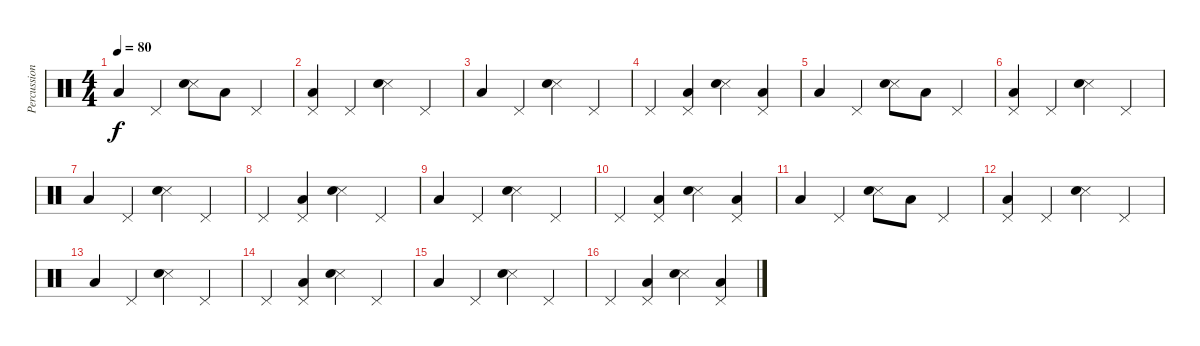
\track ("Percussions" "Percussion") {instrument percussion}
\staff {score}
\articulation defaults
\ts (4 4)
\tempo 80
\clef neutral
\ks c "Low Floor Tom (hit)".4{dy f} "Pedal Hi-Hat (hit)".4
("Snare (side stick) 3" "Electric Snare (hit)").8 "Low Floor Tom (hit)".8 "Pedal Hi-Hat (hit)".4 |
("Pedal Hi-Hat (hit)" "Low Floor Tom (hit)").4 "Pedal Hi-Hat (hit)".4 ("Snare (side stick) 3" "Electric Snare (hit)").4 "Pedal Hi-Hat (hit)".4 |
"Low Floor Tom (hit)".4 "Pedal Hi-Hat (hit)".4 ("Snare (side stick) 3" "Electric Snare (hit)").4 "Pedal Hi-Hat (hit)".4 |
"Pedal Hi-Hat (hit)".4 ("Pedal Hi-Hat (hit)" "Low Floor Tom (hit)").4 ("Snare (side stick) 3" "Electric Snare (hit)").4 ("Pedal Hi-Hat (hit)" "Low Floor Tom (hit)").4 |
"Low Floor Tom (hit)".4 "Pedal Hi-Hat (hit)".4 ("Snare (side stick) 3" "Electric Snare (hit)").8 "Low Floor Tom (hit)".8 "Pedal Hi-Hat (hit)".4 |
("Pedal Hi-Hat (hit)" "Low Floor Tom (hit)").4 "Pedal Hi-Hat (hit)".4 ("Snare (side stick) 3" "Electric Snare (hit)").4 "Pedal Hi-Hat (hit)".4 |
"Low Floor Tom (hit)".4 "Pedal Hi-Hat (hit)".4 ("Snare (side stick) 3" "Electric Snare (hit)").4 "Pedal Hi-Hat (hit)".4 |
"Pedal Hi-Hat (hit)".4 ("Pedal Hi-Hat (hit)" "Low Floor Tom (hit)").4 ("Snare (side stick) 3" "Electric Snare (hit)").4 "Pedal Hi-Hat (hit)".4 |
"Low Floor Tom (hit)".4 "Pedal Hi-Hat (hit)".4 ("Snare (side stick) 3" "Electric Snare (hit)").4 "Pedal Hi-Hat (hit)".4 |
"Pedal Hi-Hat (hit)".4 ("Pedal Hi-Hat (hit)" "Low Floor Tom (hit)").4 ("Snare (side stick) 3" "Electric Snare (hit)").4 ("Pedal Hi-Hat (hit)" "Low Floor Tom (hit)").4 |
"Low Floor Tom (hit)".4 "Pedal Hi-Hat (hit)".4 ("Snare (side stick) 3" "Electric Snare (hit)").8 "Low Floor Tom (hit)".8 "Pedal Hi-Hat (hit)".4 |
("Pedal Hi-Hat (hit)" "Low Floor Tom (hit)").4 "Pedal Hi-Hat (hit)".4 ("Snare (side stick) 3" "Electric Snare (hit)").4 "Pedal Hi-Hat (hit)".4 |
"Low Floor Tom (hit)".4 "Pedal Hi-Hat (hit)".4 ("Snare (side stick) 3" "Electric Snare (hit)").4 "Pedal Hi-Hat (hit)".4 |
"Pedal Hi-Hat (hit)".4 ("Pedal Hi-Hat (hit)" "Low Floor Tom (hit)").4 ("Snare (side stick) 3" "Electric Snare (hit)").4 "Pedal Hi-Hat (hit)".4 |
"Low Floor Tom (hit)".4 "Pedal Hi-Hat (hit)".4 ("Snare (side stick) 3" "Electric Snare (hit)").4 "Pedal Hi-Hat (hit)".4 |
"Pedal Hi-Hat (hit)".4 ("Pedal Hi-Hat (hit)" "Low Floor Tom (hit)").4 ("Snare (side stick) 3" "Electric Snare (hit)").4 ("Pedal Hi-Hat (hit)" "Low Floor Tom (hit)").4
